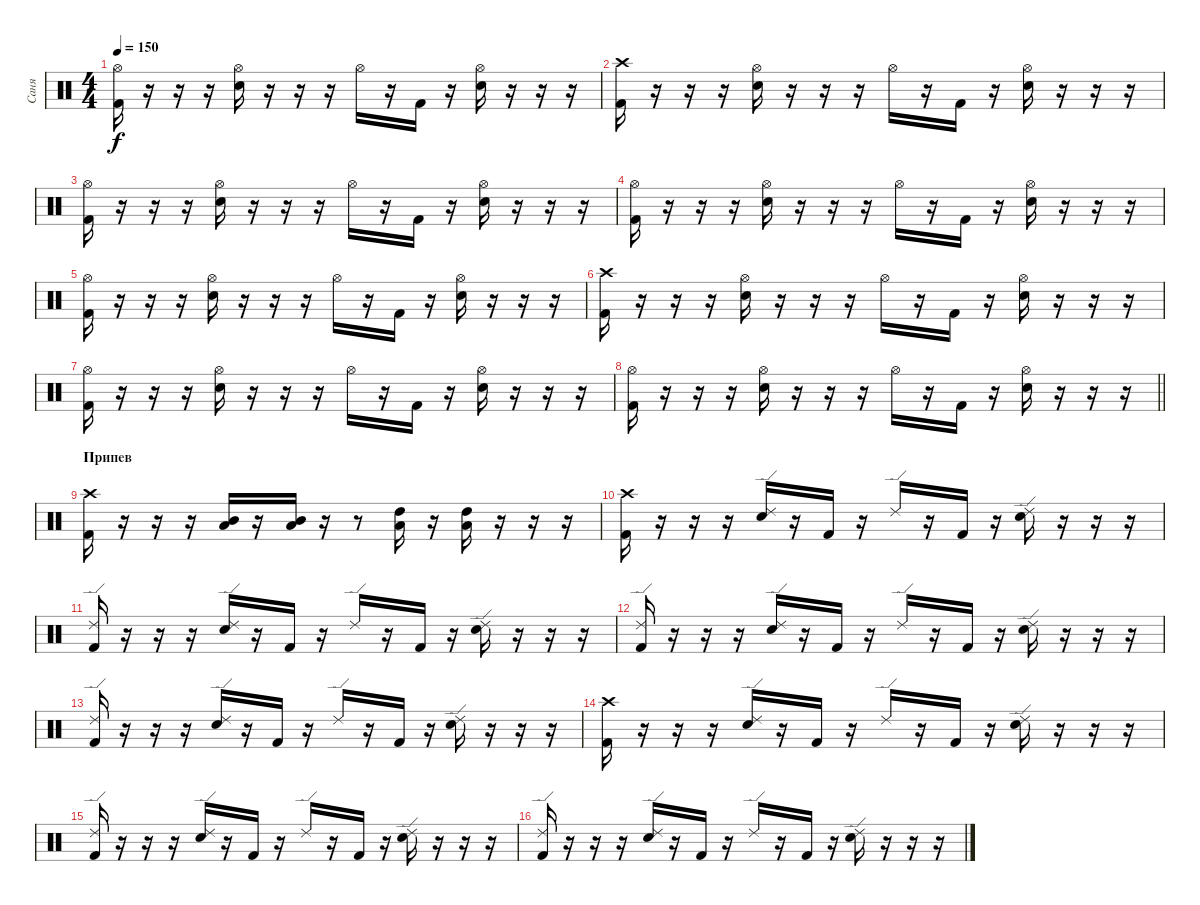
\track ("Саня" "Саня") {instrument percussion}
\staff {score}
\articulation defaults
\ts (4 4)
\tempo 150
\clef neutral
\ks c
("Kick (hit) 2" "Hi-Hat (open)").16{dy f} r.16 r.16 r.16 ("Snare (hit) 2" "Hi-Hat (open)").16 r.16 r.16 r.16 "Hi-Hat (open)".16 r.16 "Kick (hit) 2".16 r.16 ("Snare (hit) 2" "Hi-Hat (open)").16 r.16 r.16 r.16 |
("Kick (hit) 2" "Crash high (hit)").16 r.16 r.16 r.16 ("Snare (hit) 2" "Hi-Hat (open)").16 r.16 r.16 r.16 "Hi-Hat (open)".16 r.16 "Kick (hit) 2".16 r.16 ("Snare (hit) 2" "Hi-Hat (open)").16 r.16 r.16 r.16 |
("Kick (hit) 2" "Hi-Hat (open)").16 r.16 r.16 r.16 ("Snare (hit) 2" "Hi-Hat (open)").16 r.16 r.16 r.16 "Hi-Hat (open)".16 r.16 "Kick (hit) 2".16 r.16 ("Snare (hit) 2" "Hi-Hat (open)").16 r.16 r.16 r.16 |
("Kick (hit) 2" "Hi-Hat (open)").16 r.16 r.16 r.16 ("Snare (hit) 2" "Hi-Hat (open)").16 r.16 r.16 r.16 "Hi-Hat (open)".16 r.16 "Kick (hit) 2".16 r.16 ("Snare (hit) 2" "Hi-Hat (open)").16 r.16 r.16 r.16 |
("Kick (hit) 2" "Hi-Hat (open)").16 r.16 r.16 r.16 ("Snare (hit) 2" "Hi-Hat (open)").16 r.16 r.16 r.16 "Hi-Hat (open)".16 r.16 "Kick (hit) 2".16 r.16 ("Snare (hit) 2" "Hi-Hat (open)").16 r.16 r.16 r.16 |
("Kick (hit) 2" "Crash high (hit)").16 r.16 r.16 r.16 ("Snare (hit) 2" "Hi-Hat (open)").16 r.16 r.16 r.16 "Hi-Hat (open)".16 r.16 "Kick (hit) 2".16 r.16 ("Snare (hit) 2" "Hi-Hat (open)").16 r.16 r.16 r.16 |
("Kick (hit) 2" "Hi-Hat (open)").16 r.16 r.16 r.16 ("Snare (hit) 2" "Hi-Hat (open)").16 r.16 r.16 r.16 "Hi-Hat (open)".16 r.16 "Kick (hit) 2".16 r.16 ("Snare (hit) 2" "Hi-Hat (open)").16 r.16 r.16 r.16 |
\barLineRight lightlight
("Kick (hit) 2" "Hi-Hat (open)").16 r.16 r.16 r.16 ("Snare (hit) 2" "Hi-Hat (open)").16 r.16 r.16 r.16 "Hi-Hat (open)".16 r.16 "Kick (hit) 2".16 r.16 ("Snare (hit) 2" "Hi-Hat (open)").16 r.16 r.16 r.16 |
\section ("" "Припев")
("Kick (hit) 2" "Crash high (hit)").16 r.16 r.16 r.16 ("Mid Tom (hit)" "Low Floor Tom (hit)").16 r.16 ("Mid Tom (hit)" "Low Floor Tom (hit)").16 r.16 r.8 ("High Tom (hit)" "Low Floor Tom (hit)").16 r.16 ("High Tom (hit)" "Low Floor Tom (hit)").16 r.16 r.16 r.16 |
("Kick (hit) 2" "Crash high (hit)").16 r.16 r.16 r.16 ("Snare (hit) 2" "Ride (edge) 2").16 r.16 "Kick (hit) 2".16 r.16 "Ride (edge) 2".16 r.16 "Kick (hit) 2".16 r.16 ("Snare (hit) 2" "Ride (edge) 2").16 r.16 r.16 r.16 |
("Kick (hit) 2" "Ride (edge) 2").16 r.16 r.16 r.16 ("Snare (hit) 2" "Ride (edge) 2").16 r.16 "Kick (hit) 2".16 r.16 "Ride (edge) 2".16 r.16 "Kick (hit) 2".16 r.16 ("Snare (hit) 2" "Ride (edge) 2").16 r.16 r.16 r.16 |
("Kick (hit) 2" "Ride (edge) 2").16 r.16 r.16 r.16 ("Snare (hit) 2" "Ride (edge) 2").16 r.16 "Kick (hit) 2".16 r.16 "Ride (edge) 2".16 r.16 "Kick (hit) 2".16 r.16 ("Snare (hit) 2" "Ride (edge) 2").16 r.16 r.16 r.16 |
("Kick (hit) 2" "Ride (edge) 2").16 r.16 r.16 r.16 ("Snare (hit) 2" "Ride (edge) 2").16 r.16 "Kick (hit) 2".16 r.16 "Ride (edge) 2".16 r.16 "Kick (hit) 2".16 r.16 ("Snare (hit) 2" "Ride (edge) 2").16 r.16 r.16 r.16 |
("Kick (hit) 2" "Crash high (hit)").16 r.16 r.16 r.16 ("Snare (hit) 2" "Ride (edge) 2").16 r.16 "Kick (hit) 2".16 r.16 "Ride (edge) 2".16 r.16 "Kick (hit) 2".16 r.16 ("Snare (hit) 2" "Ride (edge) 2").16 r.16 r.16 r.16 |
("Kick (hit) 2" "Ride (edge) 2").16 r.16 r.16 r.16 ("Snare (hit) 2" "Ride (edge) 2").16 r.16 "Kick (hit) 2".16 r.16 "Ride (edge) 2".16 r.16 "Kick (hit) 2".16 r.16 ("Snare (hit) 2" "Ride (edge) 2").16 r.16 r.16 r.16 |
("Kick (hit) 2" "Ride (edge) 2").16 r.16 r.16 r.16 ("Snare (hit) 2" "Ride (edge) 2").16 r.16 "Kick (hit) 2".16 r.16 "Ride (edge) 2".16 r.16 "Kick (hit) 2".16 r.16 ("Snare (hit) 2" "Ride (edge) 2").16 r.16 r.16 r.16
